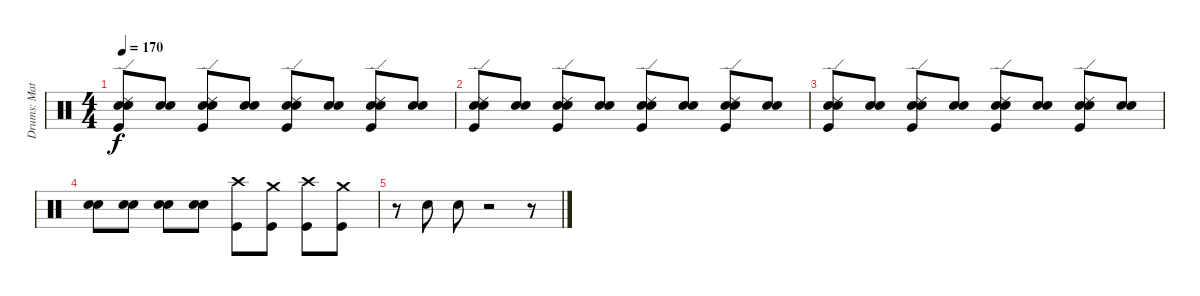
\track ("Drums: Matt" "Drums: Mat") {instrument percussion}
\staff {score}
\articulation defaults
\ts (4 4)
\tempo 170
\clef neutral
\ks c
("Snare (hit) 2" "Ride (edge) 2" "Kick (hit)" "Snare (hit) 2").8{dy f} ("Snare (hit) 2" "Snare (hit) 2").8 ("Kick (hit)" "Ride (edge) 2" "Snare (hit) 2" "Snare (hit) 2").8 ("Snare (hit) 2" "Snare (hit) 2").8 ("Snare (hit) 2" "Ride (edge) 2" "Kick (hit)" "Snare (hit) 2").8 ("Snare (hit) 2" "Snare (hit) 2").8 ("Snare (hit) 2" "Kick (hit)" "Ride (edge) 2" "Snare (hit) 2").8 ("Snare (hit) 2" "Snare (hit) 2").8 |
("Ride (edge) 2" "Kick (hit)" "Snare (hit) 2" "Snare (hit) 2").8 ("Snare (hit) 2" "Snare (hit) 2").8 ("Kick (hit)" "Snare (hit) 2" "Ride (edge) 2" "Snare (hit) 2").8 ("Snare (hit) 2" "Snare (hit) 2").8 ("Snare (hit) 2" "Ride (edge) 2" "Kick (hit)" "Snare (hit) 2").8 ("Snare (hit) 2" "Snare (hit) 2").8 ("Ride (edge) 2" "Snare (hit) 2" "Kick (hit)" "Snare (hit) 2").8 ("Snare (hit) 2" "Snare (hit) 2").8 |
("Snare (hit) 2" "Kick (hit)" "Ride (edge) 2" "Snare (hit) 2").8 ("Snare (hit) 2" "Snare (hit) 2").8 ("Kick (hit)" "Snare (hit) 2" "Ride (edge) 2" "Snare (hit) 2").8 ("Snare (hit) 2" "Snare (hit) 2").8 ("Kick (hit)" "Snare (hit) 2" "Ride (edge) 2" "Snare (hit) 2").8 ("Snare (hit) 2" "Snare (hit) 2").8 ("Ride (edge) 2" "Snare (hit) 2" "Kick (hit)" "Snare (hit) 2").8 ("Snare (hit) 2" "Snare (hit) 2").8 |
("Snare (hit) 2" "Snare (hit) 2").8 ("Snare (hit) 2" "Snare (hit) 2").8 ("Snare (hit) 2" "Snare (hit) 2").8 ("Snare (hit) 2" "Snare (hit) 2").8 ("Kick (hit)" "Crash high (hit)").8 ("Crash medium (hit)" "Kick (hit)").8 ("Crash high (hit)" "Kick (hit)").8 ("Crash medium (hit)" "Kick (hit)").8 |
r.8 "Snare (hit) 2".8 "Snare (hit) 2".8 r.2 r.8
